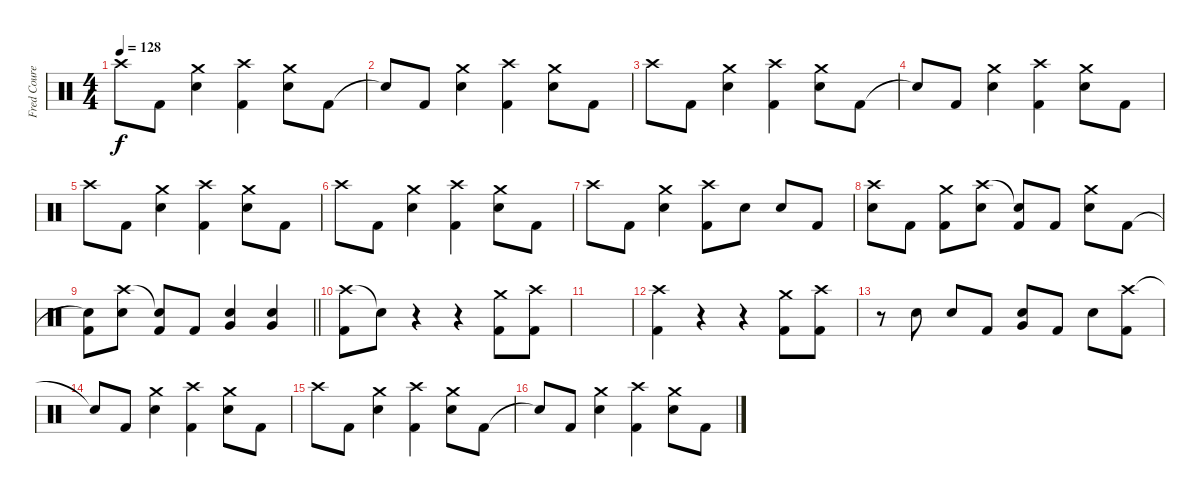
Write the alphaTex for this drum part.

\track ("Fred Courey" "Fred Coure") {instrument percussion}
\staff {score}
\articulation defaults
\ts (4 4)
\tempo 128
\clef neutral
\ks c "Crash high (hit)".8{dy f} "Kick (hit) 2".8
("Crash medium (hit)" "Snare (hit) 2").4 ("Crash high (hit)" "Kick (hit) 2").4 ("Crash medium (hit)" "Snare (hit) 2").8 "Kick (hit) 2".8 |
"Snare (hit)"{t}.8 "Kick (hit) 2".8 ("Crash medium (hit)" "Snare (hit) 2").4 ("Crash high (hit)" "Kick (hit) 2").4 ("Crash medium (hit)" "Snare (hit) 2").8 "Kick (hit) 2".8 |
"Crash high (hit)".8 "Kick (hit) 2".8 ("Crash medium (hit)" "Snare (hit) 2").4 ("Crash high (hit)" "Kick (hit) 2").4 ("Crash medium (hit)" "Snare (hit) 2").8 "Kick (hit) 2".8 |
"Snare (hit)"{t}.8 "Kick (hit) 2".8 ("Crash medium (hit)" "Snare (hit) 2").4 ("Crash high (hit)" "Kick (hit) 2").4 ("Crash medium (hit)" "Snare (hit) 2").8 "Kick (hit) 2".8 |
"Crash high (hit)".8 "Kick (hit) 2".8 ("Crash medium (hit)" "Snare (hit) 2").4 ("Crash high (hit)" "Kick (hit) 2").4 ("Crash medium (hit)" "Snare (hit) 2").8 "Kick (hit) 2".8 |
"Crash high (hit)".8 "Kick (hit) 2".8 ("Crash medium (hit)" "Snare (hit) 2").4 ("Crash high (hit)" "Kick (hit) 2").4 ("Crash medium (hit)" "Snare (hit) 2").8 "Kick (hit) 2".8 |
"Crash high (hit)".8 "Kick (hit) 2".8 ("Crash medium (hit)" "Snare (hit) 2").4 ("Crash high (hit)" "Kick (hit) 2").8 "Snare (hit) 2".8 "Snare (hit) 2".8 "Kick (hit) 2".8 |
("Crash high (hit)" "Snare (hit) 2").8 "Kick (hit) 2".8 ("Crash medium (hit)" "Kick (hit) 2").8 ("Crash high (hit)" "Snare (hit) 2").8 ("Snare (hit)"{t} "Kick (hit) 2").8 "Kick (hit) 2".8 ("Crash medium (hit)" "Snare (hit) 2").8 "Kick (hit) 2".8 |
\barLineRight lightlight
("Snare (hit)"{t} "Kick (hit) 2").8 ("Crash high (hit)" "Snare (hit) 2").8 ("Snare (hit)"{t} "Kick (hit) 2").8 "Kick (hit) 2".8 ("Very Low Tom (hit)" "Snare (hit) 2").4 ("Very Low Tom (hit)" "Snare (hit) 2").4 |
("Crash high (hit)" "Kick (hit) 2").8 "Snare (hit)"{t}.8 r.4 r.4 ("Crash medium (hit)" "Kick (hit) 2").8 ("Crash high (hit)" "Kick (hit) 2").8 |
|
("Crash high (hit)" "Kick (hit) 2").4 r.4 r.4 ("Crash medium (hit)" "Kick (hit) 2").8 ("Crash high (hit)" "Kick (hit) 2").8 |
r.8 "Snare (hit) 2".8 "Snare (hit) 2".8 "Kick (hit) 2".8 ("Very Low Tom (hit)" "Snare (hit) 2").8 "Kick (hit) 2".8 "Snare (hit) 2".8 ("Crash high (hit)" "Kick (hit) 2").8 |
"Snare (hit)"{t}.8 "Kick (hit) 2".8 ("Crash medium (hit)" "Snare (hit) 2").4 ("Crash high (hit)" "Kick (hit) 2").4 ("Crash medium (hit)" "Snare (hit) 2").8 "Kick (hit) 2".8 |
"Crash high (hit)".8 "Kick (hit) 2".8 ("Crash medium (hit)" "Snare (hit) 2").4 ("Crash high (hit)" "Kick (hit) 2").4 ("Crash medium (hit)" "Snare (hit) 2").8 "Kick (hit) 2".8 |
"Snare (hit)"{t}.8 "Kick (hit) 2".8 ("Crash medium (hit)" "Snare (hit) 2").4 ("Crash high (hit)" "Kick (hit) 2").4 ("Crash medium (hit)" "Snare (hit) 2").8 "Kick (hit) 2".8
